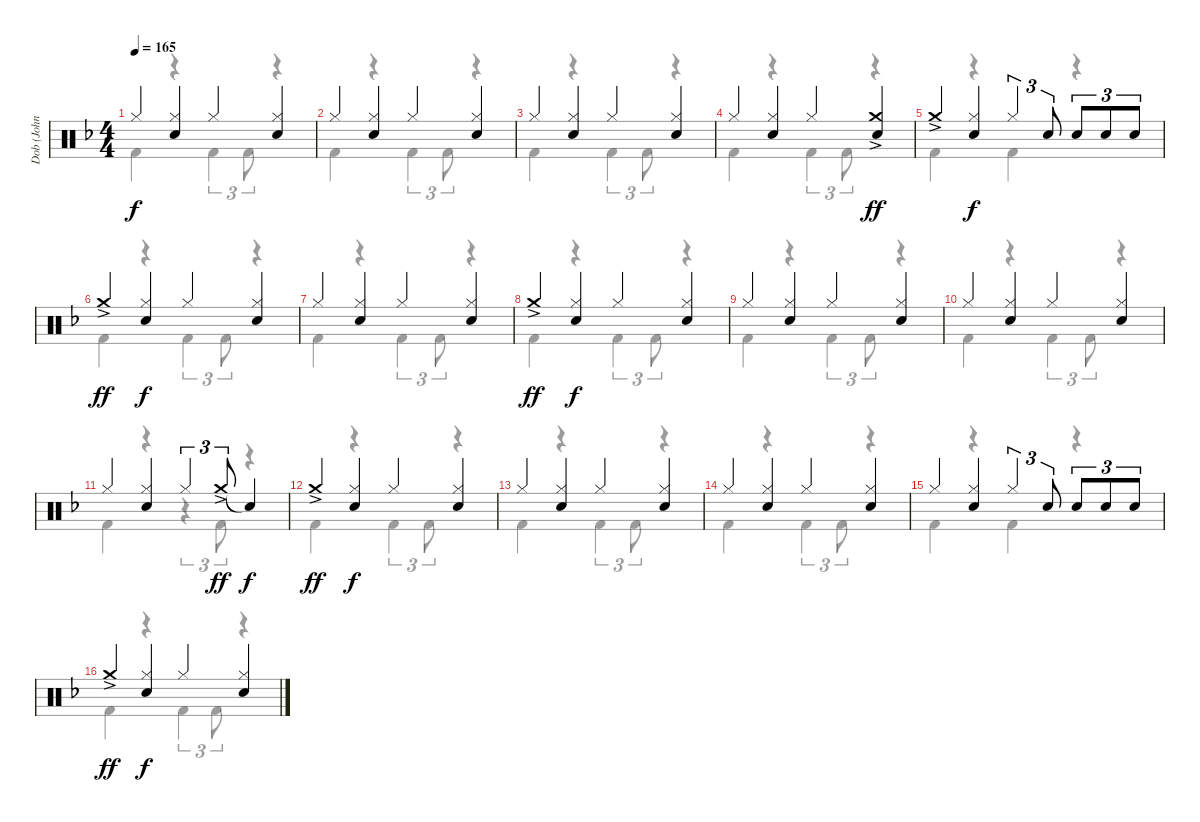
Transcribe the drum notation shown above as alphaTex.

\track ("Dob (John O’Reilly)" "Dob (John ") {instrument percussion}
\staff {score}
\articulation defaults
\voice
\ts (4 4)
\tempo 165
\clef neutral
\ks f "Hi-Hat (closed)".4{dy f}
("Hi-Hat (closed)" "Electric Snare (hit)").4 "Hi-Hat (closed)".4 ("Hi-Hat (closed)" "Electric Snare (hit)").4 |
"Hi-Hat (closed)".4 ("Hi-Hat (closed)" "Electric Snare (hit)").4 "Hi-Hat (closed)".4 ("Hi-Hat (closed)" "Electric Snare (hit)").4 |
"Hi-Hat (closed)".4 ("Hi-Hat (closed)" "Electric Snare (hit)").4 "Hi-Hat (closed)".4 ("Hi-Hat (closed)" "Electric Snare (hit)").4 |
"Hi-Hat (closed)".4 ("Hi-Hat (closed)" "Electric Snare (hit)").4 "Hi-Hat (closed)".4 ("Crash medium (hit)"{ac} "Electric Snare (hit)").4{dy ff} |
"Crash medium (hit)"{ac}.4 ("Hi-Hat (closed)" "Electric Snare (hit)").4{dy f} "Hi-Hat (closed)".4{tu (3 2)} "Electric Snare (hit)".8{tu (3 2)} "Electric Snare (hit)".8{tu (3 2)} "Electric Snare (hit)".8{tu (3 2)} "Electric Snare (hit)".8{tu (3 2)} |
"Crash medium (hit)"{ac}.4{dy ff} ("Hi-Hat (closed)" "Electric Snare (hit)").4{dy f} "Hi-Hat (closed)".4 ("Hi-Hat (closed)" "Electric Snare (hit)").4 |
"Hi-Hat (closed)".4 ("Hi-Hat (closed)" "Electric Snare (hit)").4 "Hi-Hat (closed)".4 ("Hi-Hat (closed)" "Electric Snare (hit)").4 |
"Crash medium (hit)"{ac}.4{dy ff} ("Hi-Hat (closed)" "Electric Snare (hit)").4{dy f} "Hi-Hat (closed)".4 ("Hi-Hat (closed)" "Electric Snare (hit)").4 |
"Hi-Hat (closed)".4 ("Hi-Hat (closed)" "Electric Snare (hit)").4 "Hi-Hat (closed)".4 ("Hi-Hat (closed)" "Electric Snare (hit)").4 |
"Hi-Hat (closed)".4 ("Hi-Hat (closed)" "Electric Snare (hit)").4 "Hi-Hat (closed)".4 ("Hi-Hat (closed)" "Electric Snare (hit)").4 |
"Hi-Hat (closed)".4 ("Hi-Hat (closed)" "Electric Snare (hit)").4 "Hi-Hat (closed)".4{tu (3 2)} "Crash medium (hit)"{ac}.8{tu (3 2) dy ff} "Snare (hit)"{t}.4{dy f} |
"Crash medium (hit)"{ac}.4{dy ff} ("Hi-Hat (closed)" "Electric Snare (hit)").4{dy f} "Hi-Hat (closed)".4 ("Hi-Hat (closed)" "Electric Snare (hit)").4 |
"Hi-Hat (closed)".4 ("Hi-Hat (closed)" "Electric Snare (hit)").4 "Hi-Hat (closed)".4 ("Hi-Hat (closed)" "Electric Snare (hit)").4 |
"Hi-Hat (closed)".4 ("Hi-Hat (closed)" "Electric Snare (hit)").4 "Hi-Hat (closed)".4 ("Hi-Hat (closed)" "Electric Snare (hit)").4 |
"Hi-Hat (closed)".4 ("Hi-Hat (closed)" "Electric Snare (hit)").4 "Hi-Hat (closed)".4{tu (3 2)} "Electric Snare (hit)".8{tu (3 2)} "Electric Snare (hit)".8{tu (3 2)} "Electric Snare (hit)".8{tu (3 2)} "Electric Snare (hit)".8{tu (3 2)} |
"Crash medium (hit)"{ac}.4{dy ff} ("Hi-Hat (closed)" "Electric Snare (hit)").4{dy f} "Hi-Hat (closed)".4 ("Hi-Hat (closed)" "Electric Snare (hit)").4
\voice
\clef neutral
\ottava regular
\simile none
\ks f "Kick (hit) 2".4{dy f}
r.4 "Kick (hit) 2".4{tu (3 2)} "Kick (hit) 2".8{tu (3 2)} r.4 |
"Kick (hit) 2".4 r.4 "Kick (hit) 2".4{tu (3 2)} "Kick (hit) 2".8{tu (3 2)} r.4 |
"Kick (hit) 2".4 r.4 "Kick (hit) 2".4{tu (3 2)} "Kick (hit) 2".8{tu (3 2)} r.4 |
"Kick (hit) 2".4 r.4 "Kick (hit) 2".4{tu (3 2)} "Kick (hit) 2".8{tu (3 2)} r.4 |
"Kick (hit) 2".4 r.4 "Kick (hit) 2".4 r.4 |
"Kick (hit) 2".4 r.4 "Kick (hit) 2".4{tu (3 2)} "Kick (hit) 2".8{tu (3 2)} r.4 |
"Kick (hit) 2".4 r.4 "Kick (hit) 2".4{tu (3 2)} "Kick (hit) 2".8{tu (3 2)} r.4 |
"Kick (hit) 2".4 r.4 "Kick (hit) 2".4{tu (3 2)} "Kick (hit) 2".8{tu (3 2)} r.4 |
"Kick (hit) 2".4 r.4 "Kick (hit) 2".4{tu (3 2)} "Kick (hit) 2".8{tu (3 2)} r.4 |
"Kick (hit) 2".4 r.4 "Kick (hit) 2".4{tu (3 2)} "Kick (hit) 2".8{tu (3 2)} r.4 |
"Kick (hit) 2".4 r.4 r.4{tu (3 2)} "Kick (hit) 2".8{tu (3 2)} r.4 |
"Kick (hit) 2".4 r.4 "Kick (hit) 2".4{tu (3 2)} "Kick (hit) 2".8{tu (3 2)} r.4 |
"Kick (hit) 2".4 r.4 "Kick (hit) 2".4{tu (3 2)} "Kick (hit) 2".8{tu (3 2)} r.4 |
"Kick (hit) 2".4 r.4 "Kick (hit) 2".4{tu (3 2)} "Kick (hit) 2".8{tu (3 2)} r.4 |
"Kick (hit) 2".4 r.4 "Kick (hit) 2".4 r.4 |
"Kick (hit) 2".4 r.4 "Kick (hit) 2".4{tu (3 2)} "Kick (hit) 2".8{tu (3 2)} r.4
